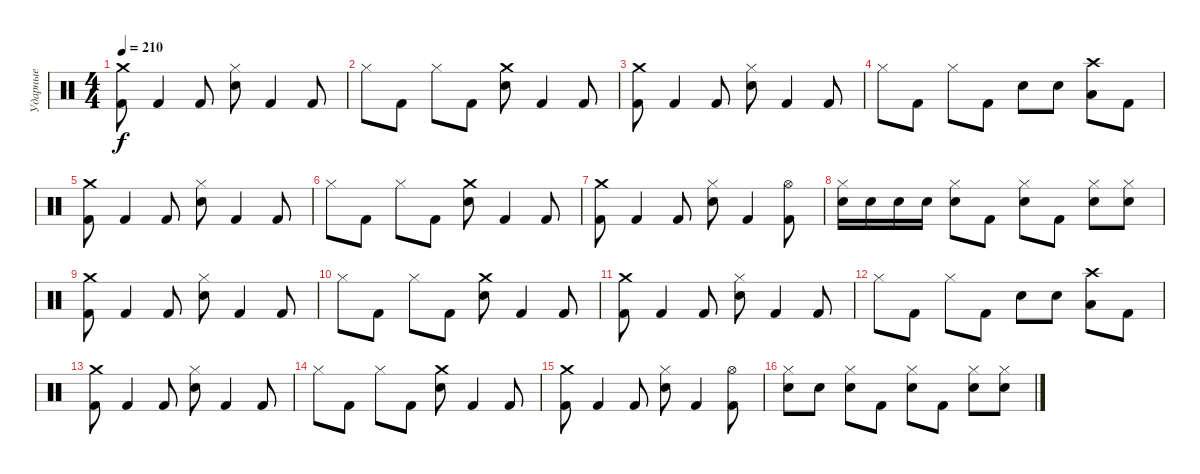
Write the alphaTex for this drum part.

\track ("Ударные" "Ударные") {instrument percussion}
\staff {score}
\articulation defaults
\ts (4 4)
\tempo 210
\clef neutral
\ks c
("Crash medium (hit)" "Kick (hit) 2").8{dy f} "Kick (hit) 2".4 "Kick (hit) 2".8 ("Hi-Hat (closed)" "Snare (hit) 2").8 "Kick (hit) 2".4 "Kick (hit) 2".8 |
"Hi-Hat (closed)".8 "Kick (hit) 2".8 "Hi-Hat (closed)".8 "Kick (hit) 2".8 ("Crash medium (hit)" "Snare (hit) 2").8 "Kick (hit) 2".4 "Kick (hit) 2".8 |
("Crash medium (hit)" "Kick (hit) 2").8 "Kick (hit) 2".4 "Kick (hit) 2".8 ("Hi-Hat (closed)" "Snare (hit) 2").8 "Kick (hit) 2".4 "Kick (hit) 2".8 |
"Hi-Hat (closed)".8 "Kick (hit) 2".8 "Hi-Hat (closed)".8 "Kick (hit) 2".8 "Snare (hit) 2".8 "Snare (hit) 2".8 ("Crash high (hit)" "Low Tom (hit)").8 "Kick (hit) 2".8 |
("Crash medium (hit)" "Kick (hit) 2").8 "Kick (hit) 2".4 "Kick (hit) 2".8 ("Hi-Hat (closed)" "Snare (hit) 2").8 "Kick (hit) 2".4 "Kick (hit) 2".8 |
"Hi-Hat (closed)".8 "Kick (hit) 2".8 "Hi-Hat (closed)".8 "Kick (hit) 2".8 ("Crash medium (hit)" "Snare (hit) 2").8 "Kick (hit) 2".4 "Kick (hit) 2".8 |
("Crash medium (hit)" "Kick (hit) 2").8 "Kick (hit) 2".4 "Kick (hit) 2".8 ("Hi-Hat (closed)" "Snare (hit) 2").8 "Kick (hit) 2".4 ("Hi-Hat (open)" "Kick (hit) 2").8 |
("Hi-Hat (closed)" "Snare (hit) 2").16 "Snare (hit) 2".16 "Snare (hit) 2".16 "Snare (hit) 2".16 ("Hi-Hat (closed)" "Snare (hit) 2").8 "Kick (hit) 2".8 ("Hi-Hat (closed)" "Snare (hit) 2").8 "Kick (hit) 2".8 ("Hi-Hat (closed)" "Snare (hit) 2").8 ("Hi-Hat (closed)" "Snare (hit) 2").8 |
("Crash medium (hit)" "Kick (hit) 2").8 "Kick (hit) 2".4 "Kick (hit) 2".8 ("Hi-Hat (closed)" "Snare (hit) 2").8 "Kick (hit) 2".4 "Kick (hit) 2".8 |
"Hi-Hat (closed)".8 "Kick (hit) 2".8 "Hi-Hat (closed)".8 "Kick (hit) 2".8 ("Crash medium (hit)" "Snare (hit) 2").8 "Kick (hit) 2".4 "Kick (hit) 2".8 |
("Crash medium (hit)" "Kick (hit) 2").8 "Kick (hit) 2".4 "Kick (hit) 2".8 ("Hi-Hat (closed)" "Snare (hit) 2").8 "Kick (hit) 2".4 "Kick (hit) 2".8 |
"Hi-Hat (closed)".8 "Kick (hit) 2".8 "Hi-Hat (closed)".8 "Kick (hit) 2".8 "Snare (hit) 2".8 "Snare (hit) 2".8 ("Crash high (hit)" "Low Tom (hit)").8 "Kick (hit) 2".8 |
("Crash medium (hit)" "Kick (hit) 2").8 "Kick (hit) 2".4 "Kick (hit) 2".8 ("Hi-Hat (closed)" "Snare (hit) 2").8 "Kick (hit) 2".4 "Kick (hit) 2".8 |
"Hi-Hat (closed)".8 "Kick (hit) 2".8 "Hi-Hat (closed)".8 "Kick (hit) 2".8 ("Crash medium (hit)" "Snare (hit) 2").8 "Kick (hit) 2".4 "Kick (hit) 2".8 |
("Crash medium (hit)" "Kick (hit) 2").8 "Kick (hit) 2".4 "Kick (hit) 2".8 ("Hi-Hat (closed)" "Snare (hit) 2").8 "Kick (hit) 2".4 ("Hi-Hat (open)" "Kick (hit) 2").8 |
("Hi-Hat (closed)" "Snare (hit) 2").8 "Snare (hit) 2".8 ("Hi-Hat (closed)" "Snare (hit) 2").8 "Kick (hit) 2".8 ("Hi-Hat (closed)" "Snare (hit) 2").8 "Kick (hit) 2".8 ("Hi-Hat (closed)" "Snare (hit) 2").8 ("Hi-Hat (closed)" "Snare (hit) 2").8
